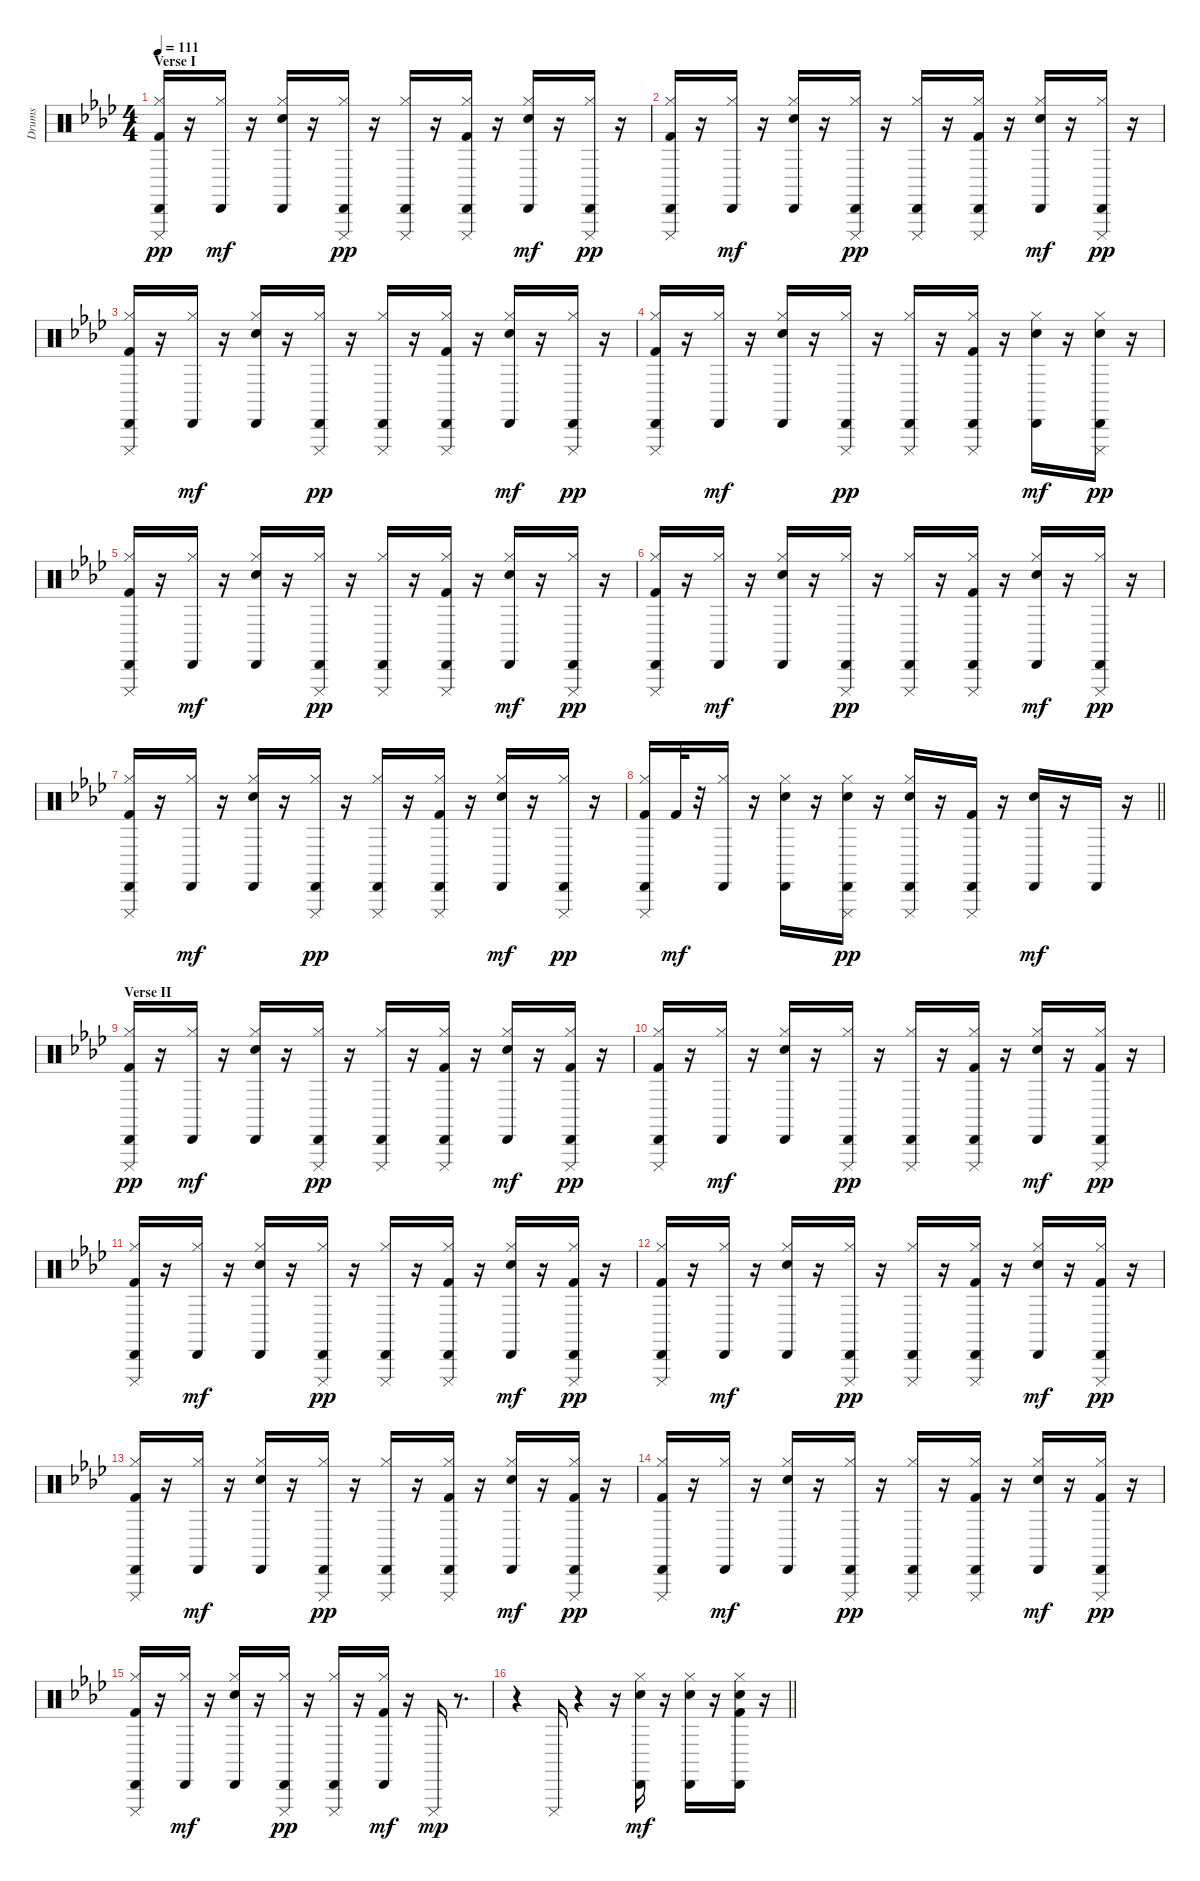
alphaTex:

\track ("Drums" "Drums") {instrument percussion}
\staff {score}
\articulation defaults
\ts (4 4)
\section ("" "Verse I")
\tempo 111
\clef neutral
\ks ab
("Kick (hit) 2" "Hi-Hat (closed)" "Cabasa (hit)" "Cuica (mute)").16{dy pp} r.16 ("Hi-Hat (closed)" "Cabasa (hit)").16{dy mf} r.16 ("Electric Snare (hit)" "Hi-Hat (closed)" "Cabasa (hit)").16 r.16 ("Hi-Hat (closed)" "Cabasa (hit)" "Cuica (mute)").16{dy pp} r.16 ("Hi-Hat (closed)" "Cabasa (hit)" "Cuica (mute)").16 r.16 ("Kick (hit) 2" "Hi-Hat (closed)" "Cabasa (hit)" "Cuica (mute)").16 r.16 ("Electric Snare (hit)" "Hi-Hat (closed)" "Cabasa (hit)").16{dy mf} r.16 ("Hi-Hat (closed)" "Cabasa (hit)" "Cuica (mute)").16{dy pp} r.16 |
("Kick (hit) 2" "Hi-Hat (closed)" "Cabasa (hit)" "Cuica (mute)").16 r.16 ("Hi-Hat (closed)" "Cabasa (hit)").16{dy mf} r.16 ("Electric Snare (hit)" "Hi-Hat (closed)" "Cabasa (hit)").16 r.16 ("Hi-Hat (closed)" "Cabasa (hit)" "Cuica (mute)").16{dy pp} r.16 ("Hi-Hat (closed)" "Cabasa (hit)" "Cuica (mute)").16 r.16 ("Kick (hit) 2" "Hi-Hat (closed)" "Cabasa (hit)" "Cuica (mute)").16 r.16 ("Electric Snare (hit)" "Hi-Hat (closed)" "Cabasa (hit)").16{dy mf} r.16 ("Hi-Hat (closed)" "Cabasa (hit)" "Cuica (mute)").16{dy pp} r.16 |
("Kick (hit) 2" "Hi-Hat (closed)" "Cabasa (hit)" "Cuica (mute)").16 r.16 ("Hi-Hat (closed)" "Cabasa (hit)").16{dy mf} r.16 ("Electric Snare (hit)" "Hi-Hat (closed)" "Cabasa (hit)").16 r.16 ("Hi-Hat (closed)" "Cabasa (hit)" "Cuica (mute)").16{dy pp} r.16 ("Hi-Hat (closed)" "Cabasa (hit)" "Cuica (mute)").16 r.16 ("Kick (hit) 2" "Hi-Hat (closed)" "Cabasa (hit)" "Cuica (mute)").16 r.16 ("Electric Snare (hit)" "Hi-Hat (closed)" "Cabasa (hit)").16{dy mf} r.16 ("Hi-Hat (closed)" "Cabasa (hit)" "Cuica (mute)").16{dy pp} r.16 |
("Kick (hit) 2" "Hi-Hat (closed)" "Cabasa (hit)" "Cuica (mute)").16 r.16 ("Hi-Hat (closed)" "Cabasa (hit)").16{dy mf} r.16 ("Electric Snare (hit)" "Hi-Hat (closed)" "Cabasa (hit)").16 r.16 ("Hi-Hat (closed)" "Cabasa (hit)" "Cuica (mute)").16{dy pp} r.16 ("Hi-Hat (closed)" "Cabasa (hit)" "Cuica (mute)").16 r.16 ("Kick (hit) 2" "Hi-Hat (closed)" "Cabasa (hit)" "Cuica (mute)").16 r.16 ("Electric Snare (hit)" "Hi-Hat (closed)" "Cabasa (hit)").16{dy mf} r.16 ("Electric Snare (hit)" "Hi-Hat (closed)" "Cabasa (hit)" "Cuica (mute)").16{dy pp} r.16 |
("Kick (hit) 2" "Hi-Hat (closed)" "Cabasa (hit)" "Cuica (mute)").16 r.16 ("Hi-Hat (closed)" "Cabasa (hit)").16{dy mf} r.16 ("Electric Snare (hit)" "Hi-Hat (closed)" "Cabasa (hit)").16 r.16 ("Hi-Hat (closed)" "Cabasa (hit)" "Cuica (mute)").16{dy pp} r.16 ("Hi-Hat (closed)" "Cabasa (hit)" "Cuica (mute)").16 r.16 ("Kick (hit) 2" "Hi-Hat (closed)" "Cabasa (hit)" "Cuica (mute)").16 r.16 ("Electric Snare (hit)" "Hi-Hat (closed)" "Cabasa (hit)").16{dy mf} r.16 ("Hi-Hat (closed)" "Cabasa (hit)" "Cuica (mute)").16{dy pp} r.16 |
("Kick (hit) 2" "Hi-Hat (closed)" "Cabasa (hit)" "Cuica (mute)").16 r.16 ("Hi-Hat (closed)" "Cabasa (hit)").16{dy mf} r.16 ("Electric Snare (hit)" "Hi-Hat (closed)" "Cabasa (hit)").16 r.16 ("Hi-Hat (closed)" "Cabasa (hit)" "Cuica (mute)").16{dy pp} r.16 ("Hi-Hat (closed)" "Cabasa (hit)" "Cuica (mute)").16 r.16 ("Kick (hit) 2" "Hi-Hat (closed)" "Cabasa (hit)" "Cuica (mute)").16 r.16 ("Electric Snare (hit)" "Hi-Hat (closed)" "Cabasa (hit)").16{dy mf} r.16 ("Hi-Hat (closed)" "Cabasa (hit)" "Cuica (mute)").16{dy pp} r.16 |
("Kick (hit) 2" "Hi-Hat (closed)" "Cabasa (hit)" "Cuica (mute)").16 r.16 ("Hi-Hat (closed)" "Cabasa (hit)").16{dy mf} r.16 ("Electric Snare (hit)" "Hi-Hat (closed)" "Cabasa (hit)").16 r.16 ("Hi-Hat (closed)" "Cabasa (hit)" "Cuica (mute)").16{dy pp} r.16 ("Hi-Hat (closed)" "Cabasa (hit)" "Cuica (mute)").16 r.16 ("Kick (hit) 2" "Hi-Hat (closed)" "Cabasa (hit)" "Cuica (mute)").16 r.16 ("Electric Snare (hit)" "Hi-Hat (closed)" "Cabasa (hit)").16{dy mf} r.16 ("Hi-Hat (closed)" "Cabasa (hit)" "Cuica (mute)").16{dy pp} r.16 |
\barLineRight lightlight
("Kick (hit) 2" "Hi-Hat (closed)" "Cabasa (hit)" "Cuica (mute)").16 "Kick (hit) 2".32{dy mf} r.32 ("Hi-Hat (closed)" "Cabasa (hit)").16 r.16 ("Electric Snare (hit)" "Hi-Hat (closed)" "Cabasa (hit)").16 r.16 ("Electric Snare (hit)" "Hi-Hat (closed)" "Cabasa (hit)" "Cuica (mute)").16{dy pp} r.16 ("Electric Snare (hit)" "Hi-Hat (closed)" "Cabasa (hit)" "Cuica (mute)").16 r.16 ("Kick (hit) 2" "Cabasa (hit)" "Cuica (mute)").16 r.16 ("Electric Snare (hit)" "Cabasa (hit)").16{dy mf} r.16 "Cabasa (hit)".16 r.16 |
\section ("" "Verse II")
("Kick (hit) 2" "Hi-Hat (closed)" "Cabasa (hit)" "Cuica (mute)").16{dy pp} r.16 ("Hi-Hat (closed)" "Cabasa (hit)").16{dy mf} r.16 ("Electric Snare (hit)" "Hi-Hat (closed)" "Cabasa (hit)").16 r.16 ("Hi-Hat (closed)" "Cabasa (hit)" "Cuica (mute)").16{dy pp} r.16 ("Hi-Hat (closed)" "Cabasa (hit)" "Cuica (mute)").16 r.16 ("Kick (hit) 2" "Hi-Hat (closed)" "Cabasa (hit)" "Cuica (mute)").16 r.16 ("Electric Snare (hit)" "Hi-Hat (closed)" "Cabasa (hit)").16{dy mf} r.16 ("Kick (hit) 2" "Hi-Hat (closed)" "Cabasa (hit)" "Cuica (mute)").16{dy pp} r.16 |
("Kick (hit) 2" "Hi-Hat (closed)" "Cabasa (hit)" "Cuica (mute)").16 r.16 ("Hi-Hat (closed)" "Cabasa (hit)").16{dy mf} r.16 ("Electric Snare (hit)" "Hi-Hat (closed)" "Cabasa (hit)").16 r.16 ("Hi-Hat (closed)" "Cabasa (hit)" "Cuica (mute)").16{dy pp} r.16 ("Hi-Hat (closed)" "Cabasa (hit)" "Cuica (mute)").16 r.16 ("Kick (hit) 2" "Hi-Hat (closed)" "Cabasa (hit)" "Cuica (mute)").16 r.16 ("Electric Snare (hit)" "Hi-Hat (closed)" "Cabasa (hit)").16{dy mf} r.16 ("Kick (hit) 2" "Hi-Hat (closed)" "Cabasa (hit)" "Cuica (mute)").16{dy pp} r.16 |
("Kick (hit) 2" "Hi-Hat (closed)" "Cabasa (hit)" "Cuica (mute)").16 r.16 ("Hi-Hat (closed)" "Cabasa (hit)").16{dy mf} r.16 ("Electric Snare (hit)" "Hi-Hat (closed)" "Cabasa (hit)").16 r.16 ("Hi-Hat (closed)" "Cabasa (hit)" "Cuica (mute)").16{dy pp} r.16 ("Hi-Hat (closed)" "Cabasa (hit)" "Cuica (mute)").16 r.16 ("Kick (hit) 2" "Hi-Hat (closed)" "Cabasa (hit)" "Cuica (mute)").16 r.16 ("Electric Snare (hit)" "Hi-Hat (closed)" "Cabasa (hit)").16{dy mf} r.16 ("Kick (hit) 2" "Hi-Hat (closed)" "Cabasa (hit)" "Cuica (mute)").16{dy pp} r.16 |
("Kick (hit) 2" "Hi-Hat (closed)" "Cabasa (hit)" "Cuica (mute)").16 r.16 ("Hi-Hat (closed)" "Cabasa (hit)").16{dy mf} r.16 ("Electric Snare (hit)" "Hi-Hat (closed)" "Cabasa (hit)").16 r.16 ("Hi-Hat (closed)" "Cabasa (hit)" "Cuica (mute)").16{dy pp} r.16 ("Hi-Hat (closed)" "Cabasa (hit)" "Cuica (mute)").16 r.16 ("Kick (hit) 2" "Hi-Hat (closed)" "Cabasa (hit)" "Cuica (mute)").16 r.16 ("Electric Snare (hit)" "Hi-Hat (closed)" "Cabasa (hit)").16{dy mf} r.16 ("Kick (hit) 2" "Hi-Hat (closed)" "Cabasa (hit)" "Cuica (mute)").16{dy pp} r.16 |
("Kick (hit) 2" "Hi-Hat (closed)" "Cabasa (hit)" "Cuica (mute)").16 r.16 ("Hi-Hat (closed)" "Cabasa (hit)").16{dy mf} r.16 ("Electric Snare (hit)" "Hi-Hat (closed)" "Cabasa (hit)").16 r.16 ("Hi-Hat (closed)" "Cabasa (hit)" "Cuica (mute)").16{dy pp} r.16 ("Hi-Hat (closed)" "Cabasa (hit)" "Cuica (mute)").16 r.16 ("Kick (hit) 2" "Hi-Hat (closed)" "Cabasa (hit)" "Cuica (mute)").16 r.16 ("Electric Snare (hit)" "Hi-Hat (closed)" "Cabasa (hit)").16{dy mf} r.16 ("Kick (hit) 2" "Hi-Hat (closed)" "Cabasa (hit)" "Cuica (mute)").16{dy pp} r.16 |
("Kick (hit) 2" "Hi-Hat (closed)" "Cabasa (hit)" "Cuica (mute)").16 r.16 ("Hi-Hat (closed)" "Cabasa (hit)").16{dy mf} r.16 ("Electric Snare (hit)" "Hi-Hat (closed)" "Cabasa (hit)").16 r.16 ("Hi-Hat (closed)" "Cabasa (hit)" "Cuica (mute)").16{dy pp} r.16 ("Hi-Hat (closed)" "Cabasa (hit)" "Cuica (mute)").16 r.16 ("Kick (hit) 2" "Hi-Hat (closed)" "Cabasa (hit)" "Cuica (mute)").16 r.16 ("Electric Snare (hit)" "Hi-Hat (closed)" "Cabasa (hit)").16{dy mf} r.16 ("Kick (hit) 2" "Hi-Hat (closed)" "Cabasa (hit)" "Cuica (mute)").16{dy pp} r.16 |
("Kick (hit) 2" "Hi-Hat (closed)" "Cabasa (hit)" "Cuica (mute)").16 r.16 ("Hi-Hat (closed)" "Cabasa (hit)").16{dy mf} r.16 ("Electric Snare (hit)" "Hi-Hat (closed)" "Cabasa (hit)").16 r.16 ("Hi-Hat (closed)" "Cabasa (hit)" "Cuica (mute)").16{dy pp} r.16 ("Hi-Hat (closed)" "Cabasa (hit)" "Cuica (mute)").16 r.16 ("Kick (hit) 2" "Hi-Hat (closed)" "Cabasa (hit)").16{dy mf} r.16 "Cuica (mute)".16{dy mp} r.8{d} |
\barLineRight lightlight
r.4 "Cuica (mute)".16 r.4 r.16 ("Electric Snare (hit)" "Hi-Hat (closed)" "Cabasa (hit)").16{dy mf} r.16 ("Electric Snare (hit)" "Hi-Hat (closed)" "Cabasa (hit)").16 r.16 ("Kick (hit) 2" "Electric Snare (hit)" "Hi-Hat (closed)" "Cabasa (hit)").16 r.16
